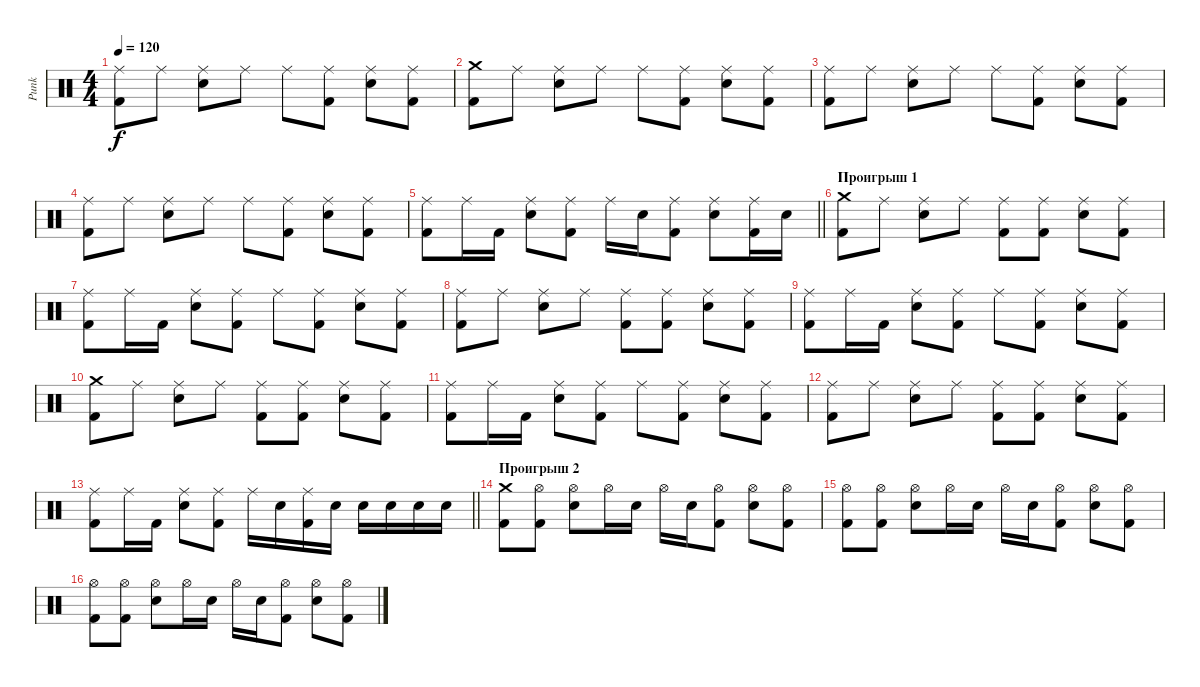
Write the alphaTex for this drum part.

\track ("Punk" "Punk") {instrument percussion}
\staff {score}
\articulation defaults
\ts (4 4)
\tempo 120
\clef neutral
\ks c
("Ride (middle)" "Kick (hit) 2").8{dy f} "Ride (middle)".8 ("Ride (middle)" "Electric Snare (hit)").8 "Ride (middle)".8 "Ride (middle)".8 ("Ride (middle)" "Kick (hit) 2").8 ("Ride (middle)" "Electric Snare (hit)").8 ("Ride (middle)" "Kick (hit) 2").8 |
("Crash medium (hit)" "Kick (hit) 2").8 "Ride (middle)".8 ("Ride (middle)" "Electric Snare (hit)").8 "Ride (middle)".8 "Ride (middle)".8 ("Ride (middle)" "Kick (hit) 2").8 ("Ride (middle)" "Electric Snare (hit)").8 ("Ride (middle)" "Kick (hit) 2").8 |
("Ride (middle)" "Kick (hit) 2").8 "Ride (middle)".8 ("Ride (middle)" "Electric Snare (hit)").8 "Ride (middle)".8 "Ride (middle)".8 ("Ride (middle)" "Kick (hit) 2").8 ("Ride (middle)" "Electric Snare (hit)").8 ("Ride (middle)" "Kick (hit) 2").8 |
("Ride (middle)" "Kick (hit) 2").8 "Ride (middle)".8 ("Ride (middle)" "Electric Snare (hit)").8 "Ride (middle)".8 "Ride (middle)".8 ("Ride (middle)" "Kick (hit) 2").8 ("Ride (middle)" "Electric Snare (hit)").8 ("Ride (middle)" "Kick (hit) 2").8 |
\barLineRight lightlight
("Ride (middle)" "Kick (hit) 2").8 "Ride (middle)".16 "Kick (hit) 2".16 ("Ride (middle)" "Electric Snare (hit)").8 ("Ride (middle)" "Kick (hit) 2").8 "Ride (middle)".16 "Electric Snare (hit)".16 ("Ride (middle)" "Kick (hit) 2").8 ("Ride (middle)" "Electric Snare (hit)").8 ("Ride (middle)" "Kick (hit) 2").16 "Electric Snare (hit)".16 |
\section ("" "Проигрыш 1")
("Crash medium (hit)" "Kick (hit) 2").8 "Ride (middle)".8 ("Ride (middle)" "Electric Snare (hit)").8 "Ride (middle)".8 ("Ride (middle)" "Kick (hit) 2").8 ("Ride (middle)" "Kick (hit) 2").8 ("Ride (middle)" "Electric Snare (hit)").8 ("Ride (middle)" "Kick (hit) 2").8 |
("Ride (middle)" "Kick (hit) 2").8 "Ride (middle)".16 "Kick (hit) 2".16 ("Ride (middle)" "Electric Snare (hit)").8 ("Ride (middle)" "Kick (hit) 2").8 "Ride (middle)".8 ("Ride (middle)" "Kick (hit) 2").8 ("Ride (middle)" "Electric Snare (hit)").8 ("Ride (middle)" "Kick (hit) 2").8 |
("Ride (middle)" "Kick (hit) 2").8 "Ride (middle)".8 ("Ride (middle)" "Electric Snare (hit)").8 "Ride (middle)".8 ("Ride (middle)" "Kick (hit) 2").8 ("Ride (middle)" "Kick (hit) 2").8 ("Ride (middle)" "Electric Snare (hit)").8 ("Ride (middle)" "Kick (hit) 2").8 |
("Ride (middle)" "Kick (hit) 2").8 "Ride (middle)".16 "Kick (hit) 2".16 ("Ride (middle)" "Electric Snare (hit)").8 ("Ride (middle)" "Kick (hit) 2").8 "Ride (middle)".8 ("Ride (middle)" "Kick (hit) 2").8 ("Ride (middle)" "Electric Snare (hit)").8 ("Ride (middle)" "Kick (hit) 2").8 |
("Crash medium (hit)" "Kick (hit) 2").8 "Ride (middle)".8 ("Ride (middle)" "Electric Snare (hit)").8 "Ride (middle)".8 ("Ride (middle)" "Kick (hit) 2").8 ("Ride (middle)" "Kick (hit) 2").8 ("Ride (middle)" "Electric Snare (hit)").8 ("Ride (middle)" "Kick (hit) 2").8 |
("Ride (middle)" "Kick (hit) 2").8 "Ride (middle)".16 "Kick (hit) 2".16 ("Ride (middle)" "Electric Snare (hit)").8 ("Ride (middle)" "Kick (hit) 2").8 "Ride (middle)".8 ("Ride (middle)" "Kick (hit) 2").8 ("Ride (middle)" "Electric Snare (hit)").8 ("Ride (middle)" "Kick (hit) 2").8 |
("Ride (middle)" "Kick (hit) 2").8 "Ride (middle)".8 ("Ride (middle)" "Electric Snare (hit)").8 "Ride (middle)".8 ("Ride (middle)" "Kick (hit) 2").8 ("Ride (middle)" "Kick (hit) 2").8 ("Ride (middle)" "Electric Snare (hit)").8 ("Ride (middle)" "Kick (hit) 2").8 |
\barLineRight lightlight
("Ride (middle)" "Kick (hit) 2").8 "Ride (middle)".16 "Kick (hit) 2".16 ("Ride (middle)" "Electric Snare (hit)").8 ("Ride (middle)" "Kick (hit) 2").8 "Ride (middle)".16 "Electric Snare (hit)".16 ("Ride (middle)" "Kick (hit) 2").16 "Electric Snare (hit)".16 "Electric Snare (hit)".16 "Electric Snare (hit)".16 "Electric Snare (hit)".16 "Electric Snare (hit)".16 |
\section ("" "Проигрыш 2")
("Crash medium (hit)" "Kick (hit) 2").8 ("Hi-Hat (open)" "Kick (hit) 2").8 ("Hi-Hat (open)" "Electric Snare (hit)").8 "Hi-Hat (open)".16 "Electric Snare (hit)".16 "Hi-Hat (open)".16 "Electric Snare (hit)".16 ("Hi-Hat (open)" "Kick (hit) 2").8 ("Hi-Hat (open)" "Electric Snare (hit)").8 ("Hi-Hat (open)" "Kick (hit) 2").8 |
("Hi-Hat (open)" "Kick (hit) 2").8 ("Hi-Hat (open)" "Kick (hit) 2").8 ("Hi-Hat (open)" "Electric Snare (hit)").8 "Hi-Hat (open)".16 "Electric Snare (hit)".16 "Hi-Hat (open)".16 "Electric Snare (hit)".16 ("Hi-Hat (open)" "Kick (hit) 2").8 ("Hi-Hat (open)" "Electric Snare (hit)").8 ("Hi-Hat (open)" "Kick (hit) 2").8 |
("Hi-Hat (open)" "Kick (hit) 2").8 ("Hi-Hat (open)" "Kick (hit) 2").8 ("Hi-Hat (open)" "Electric Snare (hit)").8 "Hi-Hat (open)".16 "Electric Snare (hit)".16 "Hi-Hat (open)".16 "Electric Snare (hit)".16 ("Hi-Hat (open)" "Kick (hit) 2").8 ("Hi-Hat (open)" "Electric Snare (hit)").8 ("Hi-Hat (open)" "Kick (hit) 2").8
